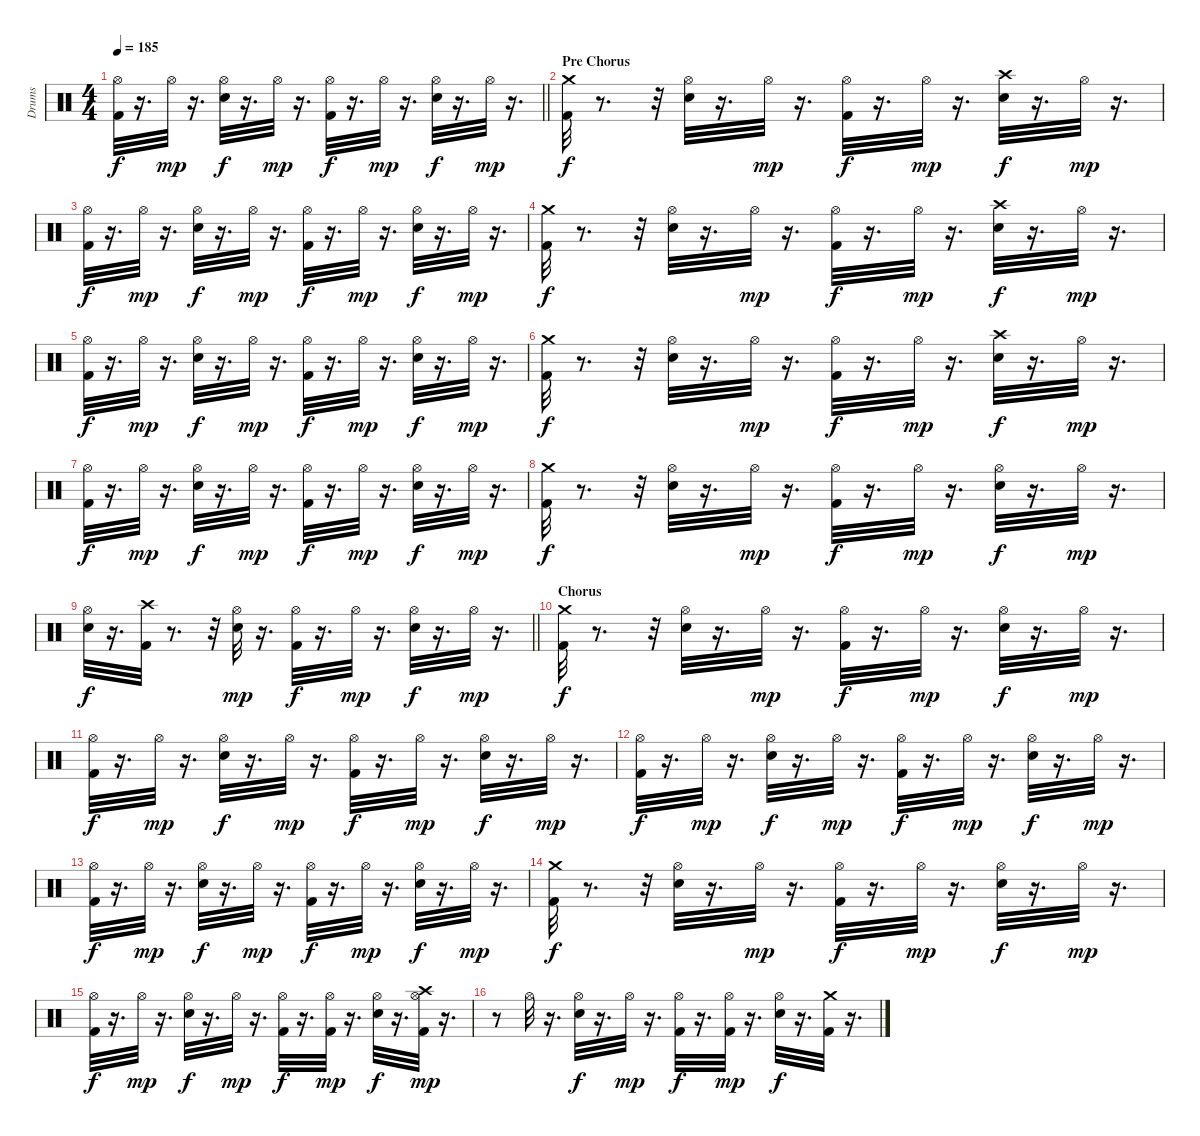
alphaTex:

\track ("Drums" "Drums") {instrument percussion}
\staff {score}
\articulation defaults
\ts (4 4)
\tempo 185
\clef neutral
\barLineRight lightlight
\ks c
("Hi-Hat (open)" "Kick (hit) 2").32{dy f} r.16{d} "Hi-Hat (open)".32{dy mp} r.16{d} ("Hi-Hat (open)" "Electric Snare (hit)").32{dy f} r.16{d} "Hi-Hat (open)".32{dy mp} r.16{d} ("Hi-Hat (open)" "Kick (hit) 2").32{dy f} r.16{d} "Hi-Hat (open)".32{dy mp} r.16{d} ("Hi-Hat (open)" "Electric Snare (hit)").32{dy f} r.16{d} "Hi-Hat (open)".32{dy mp} r.16{d} |
\section ("" "Pre Chorus")
("Crash medium (hit)" "Kick (hit) 2").32{dy f} r.8{d} r.32 ("Hi-Hat (open)" "Electric Snare (hit)").32 r.16{d} "Hi-Hat (open)".32{dy mp} r.16{d} ("Hi-Hat (open)" "Kick (hit) 2").32{dy f} r.16{d} "Hi-Hat (open)".32{dy mp} r.16{d} ("Crash high (hit)" "Electric Snare (hit)").32{dy f} r.16{d} "Hi-Hat (open)".32{dy mp} r.16{d} |
("Hi-Hat (open)" "Kick (hit) 2").32{dy f} r.16{d} "Hi-Hat (open)".32{dy mp} r.16{d} ("Hi-Hat (open)" "Electric Snare (hit)").32{dy f} r.16{d} "Hi-Hat (open)".32{dy mp} r.16{d} ("Hi-Hat (open)" "Kick (hit) 2").32{dy f} r.16{d} "Hi-Hat (open)".32{dy mp} r.16{d} ("Hi-Hat (open)" "Electric Snare (hit)").32{dy f} r.16{d} "Hi-Hat (open)".32{dy mp} r.16{d} |
("Crash medium (hit)" "Kick (hit) 2").32{dy f} r.8{d} r.32 ("Hi-Hat (open)" "Electric Snare (hit)").32 r.16{d} "Hi-Hat (open)".32{dy mp} r.16{d} ("Hi-Hat (open)" "Kick (hit) 2").32{dy f} r.16{d} "Hi-Hat (open)".32{dy mp} r.16{d} ("Crash high (hit)" "Electric Snare (hit)").32{dy f} r.16{d} "Hi-Hat (open)".32{dy mp} r.16{d} |
("Hi-Hat (open)" "Kick (hit) 2").32{dy f} r.16{d} "Hi-Hat (open)".32{dy mp} r.16{d} ("Hi-Hat (open)" "Electric Snare (hit)").32{dy f} r.16{d} "Hi-Hat (open)".32{dy mp} r.16{d} ("Hi-Hat (open)" "Kick (hit) 2").32{dy f} r.16{d} "Hi-Hat (open)".32{dy mp} r.16{d} ("Hi-Hat (open)" "Electric Snare (hit)").32{dy f} r.16{d} "Hi-Hat (open)".32{dy mp} r.16{d} |
("Crash medium (hit)" "Kick (hit) 2").32{dy f} r.8{d} r.32 ("Hi-Hat (open)" "Electric Snare (hit)").32 r.16{d} "Hi-Hat (open)".32{dy mp} r.16{d} ("Hi-Hat (open)" "Kick (hit) 2").32{dy f} r.16{d} "Hi-Hat (open)".32{dy mp} r.16{d} ("Crash high (hit)" "Electric Snare (hit)").32{dy f} r.16{d} "Hi-Hat (open)".32{dy mp} r.16{d} |
("Hi-Hat (open)" "Kick (hit) 2").32{dy f} r.16{d} "Hi-Hat (open)".32{dy mp} r.16{d} ("Hi-Hat (open)" "Electric Snare (hit)").32{dy f} r.16{d} "Hi-Hat (open)".32{dy mp} r.16{d} ("Hi-Hat (open)" "Kick (hit) 2").32{dy f} r.16{d} "Hi-Hat (open)".32{dy mp} r.16{d} ("Hi-Hat (open)" "Electric Snare (hit)").32{dy f} r.16{d} "Hi-Hat (open)".32{dy mp} r.16{d} |
("Crash medium (hit)" "Kick (hit) 2").32{dy f} r.8{d} r.32 ("Hi-Hat (open)" "Electric Snare (hit)").32 r.16{d} "Hi-Hat (open)".32{dy mp} r.16{d} ("Hi-Hat (open)" "Kick (hit) 2").32{dy f} r.16{d} "Hi-Hat (open)".32{dy mp} r.16{d} ("Hi-Hat (open)" "Electric Snare (hit)").32{dy f} r.16{d} "Hi-Hat (open)".32{dy mp} r.16{d} |
\barLineRight lightlight
("Electric Snare (hit)" "Hi-Hat (open)").32{dy f} r.16{d} ("Crash high (hit)" "Kick (hit) 2").32 r.8{d} r.32 ("Electric Snare (hit)" "Hi-Hat (open)").32{dy mp} r.16{d} ("Kick (hit) 2" "Hi-Hat (open)").32{dy f} r.16{d} "Hi-Hat (open)".32{dy mp} r.16{d} ("Hi-Hat (open)" "Electric Snare (hit)").32{dy f} r.16{d} "Hi-Hat (open)".32{dy mp} r.16{d} |
\section ("" "Chorus")
("Crash medium (hit)" "Kick (hit) 2").32{dy f} r.8{d} r.32 ("Hi-Hat (open)" "Electric Snare (hit)").32 r.16{d} "Hi-Hat (open)".32{dy mp} r.16{d} ("Hi-Hat (open)" "Kick (hit) 2").32{dy f} r.16{d} "Hi-Hat (open)".32{dy mp} r.16{d} ("Hi-Hat (open)" "Electric Snare (hit)").32{dy f} r.16{d} "Hi-Hat (open)".32{dy mp} r.16{d} |
("Hi-Hat (open)" "Kick (hit) 2").32{dy f} r.16{d} "Hi-Hat (open)".32{dy mp} r.16{d} ("Hi-Hat (open)" "Electric Snare (hit)").32{dy f} r.16{d} "Hi-Hat (open)".32{dy mp} r.16{d} ("Hi-Hat (open)" "Kick (hit) 2").32{dy f} r.16{d} "Hi-Hat (open)".32{dy mp} r.16{d} ("Hi-Hat (open)" "Electric Snare (hit)").32{dy f} r.16{d} "Hi-Hat (open)".32{dy mp} r.16{d} |
("Hi-Hat (open)" "Kick (hit) 2").32{dy f} r.16{d} "Hi-Hat (open)".32{dy mp} r.16{d} ("Hi-Hat (open)" "Electric Snare (hit)").32{dy f} r.16{d} "Hi-Hat (open)".32{dy mp} r.16{d} ("Hi-Hat (open)" "Kick (hit) 2").32{dy f} r.16{d} "Hi-Hat (open)".32{dy mp} r.16{d} ("Hi-Hat (open)" "Electric Snare (hit)").32{dy f} r.16{d} "Hi-Hat (open)".32{dy mp} r.16{d} |
("Hi-Hat (open)" "Kick (hit) 2").32{dy f} r.16{d} "Hi-Hat (open)".32{dy mp} r.16{d} ("Hi-Hat (open)" "Electric Snare (hit)").32{dy f} r.16{d} "Hi-Hat (open)".32{dy mp} r.16{d} ("Hi-Hat (open)" "Kick (hit) 2").32{dy f} r.16{d} "Hi-Hat (open)".32{dy mp} r.16{d} ("Hi-Hat (open)" "Electric Snare (hit)").32{dy f} r.16{d} "Hi-Hat (open)".32{dy mp} r.16{d} |
("Crash medium (hit)" "Kick (hit) 2").32{dy f} r.8{d} r.32 ("Hi-Hat (open)" "Electric Snare (hit)").32 r.16{d} "Hi-Hat (open)".32{dy mp} r.16{d} ("Hi-Hat (open)" "Kick (hit) 2").32{dy f} r.16{d} "Hi-Hat (open)".32{dy mp} r.16{d} ("Hi-Hat (open)" "Electric Snare (hit)").32{dy f} r.16{d} "Hi-Hat (open)".32{dy mp} r.16{d} |
("Hi-Hat (open)" "Kick (hit) 2").32{dy f} r.16{d} "Hi-Hat (open)".32{dy mp} r.16{d} ("Hi-Hat (open)" "Electric Snare (hit)").32{dy f} r.16{d} "Hi-Hat (open)".32{dy mp} r.16{d} ("Hi-Hat (open)" "Kick (hit) 2").32{dy f} r.16{d} ("Kick (hit) 2" "Hi-Hat (open)").32{dy mp} r.16{d} ("Hi-Hat (open)" "Electric Snare (hit)").32{dy f} r.16{d} ("Hi-Hat (open)" "Crash high (hit)" "Kick (hit) 2").32{dy mp} r.16{d} |
r.8 "Hi-Hat (open)".32 r.16{d} ("Hi-Hat (open)" "Electric Snare (hit)").32{dy f} r.16{d} "Hi-Hat (open)".32{dy mp} r.16{d} ("Hi-Hat (open)" "Kick (hit) 2").32{dy f} r.16{d} ("Hi-Hat (open)" "Kick (hit) 2").32{dy mp} r.16{d} ("Hi-Hat (open)" "Electric Snare (hit)").32{dy f} r.16{d} ("Crash medium (hit)" "Kick (hit) 2").32 r.16{d}
